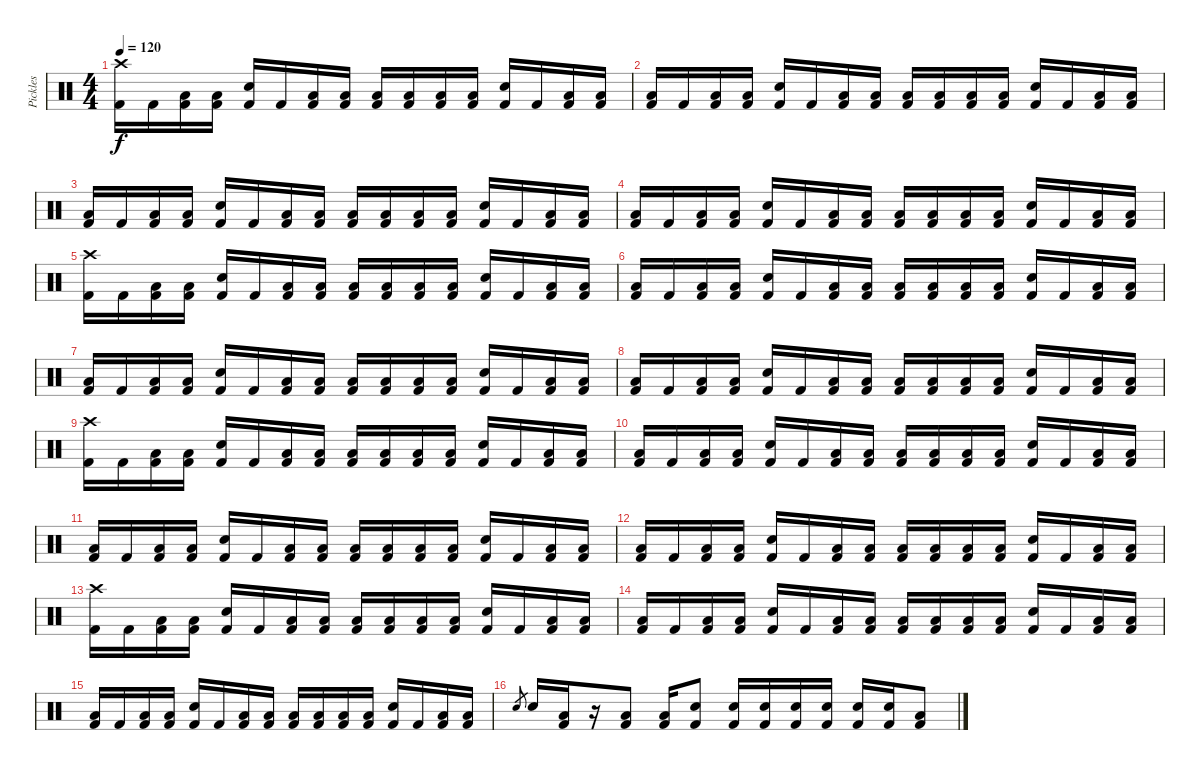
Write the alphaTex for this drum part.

\track ("Pickles" "Pickles") {instrument percussion}
\staff {score}
\articulation defaults
\ts (4 4)
\tempo 120
\clef neutral
\ks c
("Crash high (hit)" "Kick (hit) 2").16{dy f} "Kick (hit) 2".16 ("Low Floor Tom (hit)" "Kick (hit) 2").16 ("Low Floor Tom (hit)" "Kick (hit) 2").16 ("Snare (hit) 2" "Kick (hit) 2").16 "Kick (hit) 2".16 ("Low Floor Tom (hit)" "Kick (hit) 2").16 ("Low Floor Tom (hit)" "Kick (hit) 2").16 ("Low Floor Tom (hit)" "Kick (hit) 2").16 ("Low Floor Tom (hit)" "Kick (hit) 2").16 ("Low Floor Tom (hit)" "Kick (hit) 2").16 ("Low Floor Tom (hit)" "Kick (hit) 2").16 ("Snare (hit) 2" "Kick (hit) 2").16 "Kick (hit) 2".16 ("Low Floor Tom (hit)" "Kick (hit) 2").16 ("Low Floor Tom (hit)" "Kick (hit) 2").16 |
("Low Floor Tom (hit)" "Kick (hit) 2").16 "Kick (hit) 2".16 ("Low Floor Tom (hit)" "Kick (hit) 2").16 ("Low Floor Tom (hit)" "Kick (hit) 2").16 ("Snare (hit) 2" "Kick (hit) 2").16 "Kick (hit) 2".16 ("Low Floor Tom (hit)" "Kick (hit) 2").16 ("Low Floor Tom (hit)" "Kick (hit) 2").16 ("Low Floor Tom (hit)" "Kick (hit) 2").16 ("Low Floor Tom (hit)" "Kick (hit) 2").16 ("Low Floor Tom (hit)" "Kick (hit) 2").16 ("Low Floor Tom (hit)" "Kick (hit) 2").16 ("Snare (hit) 2" "Kick (hit) 2").16 "Kick (hit) 2".16 ("Low Floor Tom (hit)" "Kick (hit) 2").16 ("Low Floor Tom (hit)" "Kick (hit) 2").16 |
("Low Floor Tom (hit)" "Kick (hit) 2").16 "Kick (hit) 2".16 ("Low Floor Tom (hit)" "Kick (hit) 2").16 ("Low Floor Tom (hit)" "Kick (hit) 2").16 ("Snare (hit) 2" "Kick (hit) 2").16 "Kick (hit) 2".16 ("Low Floor Tom (hit)" "Kick (hit) 2").16 ("Low Floor Tom (hit)" "Kick (hit) 2").16 ("Low Floor Tom (hit)" "Kick (hit) 2").16 ("Low Floor Tom (hit)" "Kick (hit) 2").16 ("Low Floor Tom (hit)" "Kick (hit) 2").16 ("Low Floor Tom (hit)" "Kick (hit) 2").16 ("Snare (hit) 2" "Kick (hit) 2").16 "Kick (hit) 2".16 ("Low Floor Tom (hit)" "Kick (hit) 2").16 ("Low Floor Tom (hit)" "Kick (hit) 2").16 |
("Low Floor Tom (hit)" "Kick (hit) 2").16 "Kick (hit) 2".16 ("Low Floor Tom (hit)" "Kick (hit) 2").16 ("Low Floor Tom (hit)" "Kick (hit) 2").16 ("Snare (hit) 2" "Kick (hit) 2").16 "Kick (hit) 2".16 ("Low Floor Tom (hit)" "Kick (hit) 2").16 ("Low Floor Tom (hit)" "Kick (hit) 2").16 ("Low Floor Tom (hit)" "Kick (hit) 2").16 ("Low Floor Tom (hit)" "Kick (hit) 2").16 ("Low Floor Tom (hit)" "Kick (hit) 2").16 ("Low Floor Tom (hit)" "Kick (hit) 2").16 ("Snare (hit) 2" "Kick (hit) 2").16 "Kick (hit) 2".16 ("Low Floor Tom (hit)" "Kick (hit) 2").16 ("Low Floor Tom (hit)" "Kick (hit) 2").16 |
("Crash high (hit)" "Kick (hit) 2").16 "Kick (hit) 2".16 ("Low Floor Tom (hit)" "Kick (hit) 2").16 ("Low Floor Tom (hit)" "Kick (hit) 2").16 ("Snare (hit) 2" "Kick (hit) 2").16 "Kick (hit) 2".16 ("Low Floor Tom (hit)" "Kick (hit) 2").16 ("Low Floor Tom (hit)" "Kick (hit) 2").16 ("Low Floor Tom (hit)" "Kick (hit) 2").16 ("Low Floor Tom (hit)" "Kick (hit) 2").16 ("Low Floor Tom (hit)" "Kick (hit) 2").16 ("Low Floor Tom (hit)" "Kick (hit) 2").16 ("Snare (hit) 2" "Kick (hit) 2").16 "Kick (hit) 2".16 ("Low Floor Tom (hit)" "Kick (hit) 2").16 ("Low Floor Tom (hit)" "Kick (hit) 2").16 |
("Low Floor Tom (hit)" "Kick (hit) 2").16 "Kick (hit) 2".16 ("Low Floor Tom (hit)" "Kick (hit) 2").16 ("Low Floor Tom (hit)" "Kick (hit) 2").16 ("Snare (hit) 2" "Kick (hit) 2").16 "Kick (hit) 2".16 ("Low Floor Tom (hit)" "Kick (hit) 2").16 ("Low Floor Tom (hit)" "Kick (hit) 2").16 ("Low Floor Tom (hit)" "Kick (hit) 2").16 ("Low Floor Tom (hit)" "Kick (hit) 2").16 ("Low Floor Tom (hit)" "Kick (hit) 2").16 ("Low Floor Tom (hit)" "Kick (hit) 2").16 ("Snare (hit) 2" "Kick (hit) 2").16 "Kick (hit) 2".16 ("Low Floor Tom (hit)" "Kick (hit) 2").16 ("Low Floor Tom (hit)" "Kick (hit) 2").16 |
("Low Floor Tom (hit)" "Kick (hit) 2").16 "Kick (hit) 2".16 ("Low Floor Tom (hit)" "Kick (hit) 2").16 ("Low Floor Tom (hit)" "Kick (hit) 2").16 ("Snare (hit) 2" "Kick (hit) 2").16 "Kick (hit) 2".16 ("Low Floor Tom (hit)" "Kick (hit) 2").16 ("Low Floor Tom (hit)" "Kick (hit) 2").16 ("Low Floor Tom (hit)" "Kick (hit) 2").16 ("Low Floor Tom (hit)" "Kick (hit) 2").16 ("Low Floor Tom (hit)" "Kick (hit) 2").16 ("Low Floor Tom (hit)" "Kick (hit) 2").16 ("Snare (hit) 2" "Kick (hit) 2").16 "Kick (hit) 2".16 ("Low Floor Tom (hit)" "Kick (hit) 2").16 ("Low Floor Tom (hit)" "Kick (hit) 2").16 |
("Low Floor Tom (hit)" "Kick (hit) 2").16 "Kick (hit) 2".16 ("Low Floor Tom (hit)" "Kick (hit) 2").16 ("Low Floor Tom (hit)" "Kick (hit) 2").16 ("Snare (hit) 2" "Kick (hit) 2").16 "Kick (hit) 2".16 ("Low Floor Tom (hit)" "Kick (hit) 2").16 ("Low Floor Tom (hit)" "Kick (hit) 2").16 ("Low Floor Tom (hit)" "Kick (hit) 2").16 ("Low Floor Tom (hit)" "Kick (hit) 2").16 ("Low Floor Tom (hit)" "Kick (hit) 2").16 ("Low Floor Tom (hit)" "Kick (hit) 2").16 ("Snare (hit) 2" "Kick (hit) 2").16 "Kick (hit) 2".16 ("Low Floor Tom (hit)" "Kick (hit) 2").16 ("Low Floor Tom (hit)" "Kick (hit) 2").16 |
("Crash high (hit)" "Kick (hit) 2").16 "Kick (hit) 2".16 ("Low Floor Tom (hit)" "Kick (hit) 2").16 ("Low Floor Tom (hit)" "Kick (hit) 2").16 ("Snare (hit) 2" "Kick (hit) 2").16 "Kick (hit) 2".16 ("Low Floor Tom (hit)" "Kick (hit) 2").16 ("Low Floor Tom (hit)" "Kick (hit) 2").16 ("Low Floor Tom (hit)" "Kick (hit) 2").16 ("Low Floor Tom (hit)" "Kick (hit) 2").16 ("Low Floor Tom (hit)" "Kick (hit) 2").16 ("Low Floor Tom (hit)" "Kick (hit) 2").16 ("Snare (hit) 2" "Kick (hit) 2").16 "Kick (hit) 2".16 ("Low Floor Tom (hit)" "Kick (hit) 2").16 ("Low Floor Tom (hit)" "Kick (hit) 2").16 |
("Low Floor Tom (hit)" "Kick (hit) 2").16 "Kick (hit) 2".16 ("Low Floor Tom (hit)" "Kick (hit) 2").16 ("Low Floor Tom (hit)" "Kick (hit) 2").16 ("Snare (hit) 2" "Kick (hit) 2").16 "Kick (hit) 2".16 ("Low Floor Tom (hit)" "Kick (hit) 2").16 ("Low Floor Tom (hit)" "Kick (hit) 2").16 ("Low Floor Tom (hit)" "Kick (hit) 2").16 ("Low Floor Tom (hit)" "Kick (hit) 2").16 ("Low Floor Tom (hit)" "Kick (hit) 2").16 ("Low Floor Tom (hit)" "Kick (hit) 2").16 ("Snare (hit) 2" "Kick (hit) 2").16 "Kick (hit) 2".16 ("Low Floor Tom (hit)" "Kick (hit) 2").16 ("Low Floor Tom (hit)" "Kick (hit) 2").16 |
("Low Floor Tom (hit)" "Kick (hit) 2").16 "Kick (hit) 2".16 ("Low Floor Tom (hit)" "Kick (hit) 2").16 ("Low Floor Tom (hit)" "Kick (hit) 2").16 ("Snare (hit) 2" "Kick (hit) 2").16 "Kick (hit) 2".16 ("Low Floor Tom (hit)" "Kick (hit) 2").16 ("Low Floor Tom (hit)" "Kick (hit) 2").16 ("Low Floor Tom (hit)" "Kick (hit) 2").16 ("Low Floor Tom (hit)" "Kick (hit) 2").16 ("Low Floor Tom (hit)" "Kick (hit) 2").16 ("Low Floor Tom (hit)" "Kick (hit) 2").16 ("Snare (hit) 2" "Kick (hit) 2").16 "Kick (hit) 2".16 ("Low Floor Tom (hit)" "Kick (hit) 2").16 ("Low Floor Tom (hit)" "Kick (hit) 2").16 |
("Low Floor Tom (hit)" "Kick (hit) 2").16 "Kick (hit) 2".16 ("Low Floor Tom (hit)" "Kick (hit) 2").16 ("Low Floor Tom (hit)" "Kick (hit) 2").16 ("Snare (hit) 2" "Kick (hit) 2").16 "Kick (hit) 2".16 ("Low Floor Tom (hit)" "Kick (hit) 2").16 ("Low Floor Tom (hit)" "Kick (hit) 2").16 ("Low Floor Tom (hit)" "Kick (hit) 2").16 ("Low Floor Tom (hit)" "Kick (hit) 2").16 ("Low Floor Tom (hit)" "Kick (hit) 2").16 ("Low Floor Tom (hit)" "Kick (hit) 2").16 ("Snare (hit) 2" "Kick (hit) 2").16 "Kick (hit) 2".16 ("Low Floor Tom (hit)" "Kick (hit) 2").16 ("Low Floor Tom (hit)" "Kick (hit) 2").16 |
("Crash high (hit)" "Kick (hit) 2").16 "Kick (hit) 2".16 ("Low Floor Tom (hit)" "Kick (hit) 2").16 ("Low Floor Tom (hit)" "Kick (hit) 2").16 ("Snare (hit) 2" "Kick (hit) 2").16 "Kick (hit) 2".16 ("Low Floor Tom (hit)" "Kick (hit) 2").16 ("Low Floor Tom (hit)" "Kick (hit) 2").16 ("Low Floor Tom (hit)" "Kick (hit) 2").16 ("Low Floor Tom (hit)" "Kick (hit) 2").16 ("Low Floor Tom (hit)" "Kick (hit) 2").16 ("Low Floor Tom (hit)" "Kick (hit) 2").16 ("Snare (hit) 2" "Kick (hit) 2").16 "Kick (hit) 2".16 ("Low Floor Tom (hit)" "Kick (hit) 2").16 ("Low Floor Tom (hit)" "Kick (hit) 2").16 |
("Low Floor Tom (hit)" "Kick (hit) 2").16 "Kick (hit) 2".16 ("Low Floor Tom (hit)" "Kick (hit) 2").16 ("Low Floor Tom (hit)" "Kick (hit) 2").16 ("Snare (hit) 2" "Kick (hit) 2").16 "Kick (hit) 2".16 ("Low Floor Tom (hit)" "Kick (hit) 2").16 ("Low Floor Tom (hit)" "Kick (hit) 2").16 ("Low Floor Tom (hit)" "Kick (hit) 2").16 ("Low Floor Tom (hit)" "Kick (hit) 2").16 ("Low Floor Tom (hit)" "Kick (hit) 2").16 ("Low Floor Tom (hit)" "Kick (hit) 2").16 ("Snare (hit) 2" "Kick (hit) 2").16 "Kick (hit) 2".16 ("Low Floor Tom (hit)" "Kick (hit) 2").16 ("Low Floor Tom (hit)" "Kick (hit) 2").16 |
("Low Floor Tom (hit)" "Kick (hit) 2").16 "Kick (hit) 2".16 ("Low Floor Tom (hit)" "Kick (hit) 2").16 ("Low Floor Tom (hit)" "Kick (hit) 2").16 ("Snare (hit) 2" "Kick (hit) 2").16 "Kick (hit) 2".16 ("Low Floor Tom (hit)" "Kick (hit) 2").16 ("Low Floor Tom (hit)" "Kick (hit) 2").16 ("Low Floor Tom (hit)" "Kick (hit) 2").16 ("Low Floor Tom (hit)" "Kick (hit) 2").16 ("Low Floor Tom (hit)" "Kick (hit) 2").16 ("Low Floor Tom (hit)" "Kick (hit) 2").16 ("Snare (hit) 2" "Kick (hit) 2").16 "Kick (hit) 2".16 ("Low Floor Tom (hit)" "Kick (hit) 2").16 ("Low Floor Tom (hit)" "Kick (hit) 2").16 |
"Snare (hit) 2".8{gr} "Snare (hit) 2".16 ("Low Floor Tom (hit)" "Kick (hit) 2").16 r.16 ("Low Floor Tom (hit)" "Kick (hit) 2").8 ("Low Floor Tom (hit)" "Kick (hit) 2").16 ("Snare (hit) 2" "Kick (hit) 2").8 ("Snare (hit) 2" "Kick (hit) 2").16 ("Snare (hit) 2" "Kick (hit) 2").16 ("Snare (hit) 2" "Kick (hit) 2").16 ("Snare (hit) 2" "Kick (hit) 2").16 ("Snare (hit) 2" "Kick (hit) 2").16 ("Snare (hit) 2" "Kick (hit) 2").16 ("Low Floor Tom (hit)" "Kick (hit) 2").8
